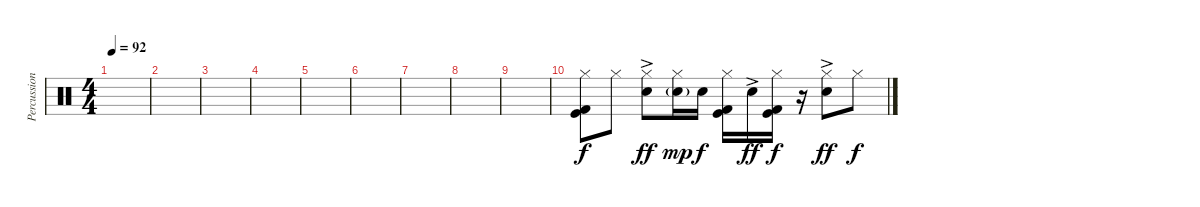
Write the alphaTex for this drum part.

\track ("Percussion" "Percussion") {instrument percussion}
\staff {score}
\articulation defaults
\ts (4 4)
\tempo 92
\clef neutral
\ks c
|
|
|
|
|
|
|
|
|
("Hi-Hat (closed)" "Kick (hit)" "Kick (hit) 2").8 "Hi-Hat (closed)".8 ("Hi-Hat (closed)" "Snare (hit) 2"{ac}).8{dy ff} ("Hi-Hat (closed)" "Snare (hit) 2"{g}).16{dy mp} "Snare (hit) 2".16{dy f} ("Hi-Hat (closed)" "Kick (hit)" "Kick (hit) 2").16 "Snare (hit) 2"{ac}.16{dy ff} ("Hi-Hat (closed)" "Kick (hit)" "Kick (hit) 2").16{dy f} r.16 ("Hi-Hat (closed)" "Snare (hit) 2"{ac}).8{dy ff} "Hi-Hat (closed)".8{dy f}
